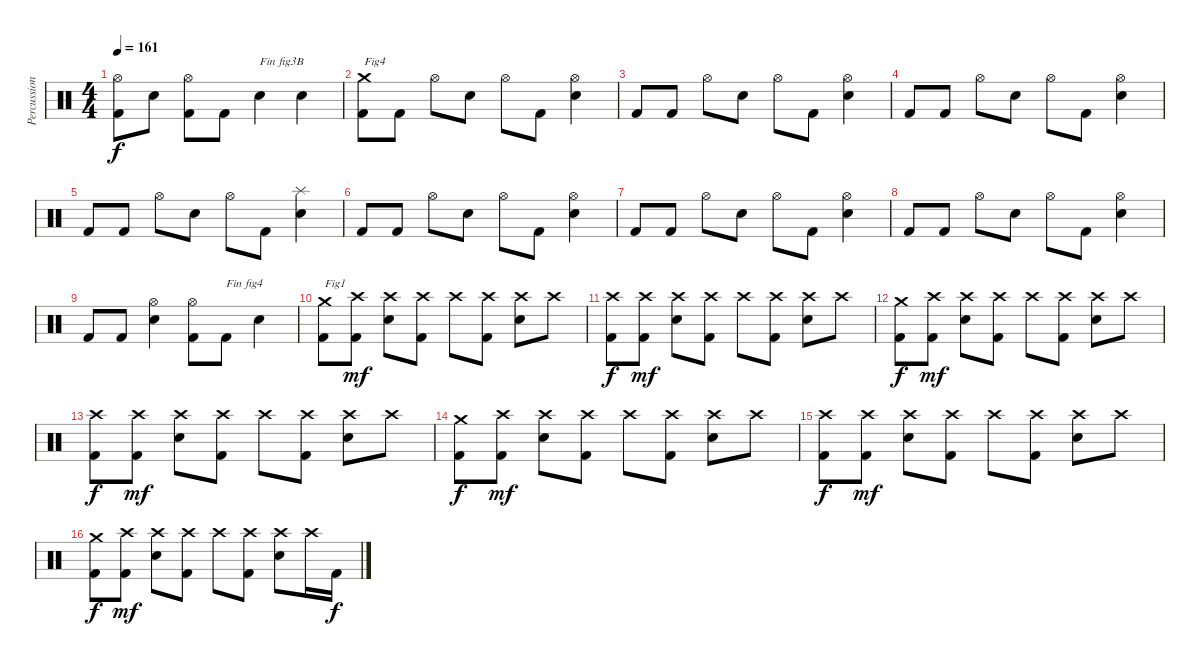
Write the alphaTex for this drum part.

\track ("Percussions" "Percussion") {instrument percussion}
\staff {score}
\articulation defaults
\ts (4 4)
\tempo 161
\clef neutral
\ks c
("Kick (hit) 2" "Hi-Hat (open)").8{dy f} "Electric Snare (hit)".8 ("Kick (hit) 2" "Hi-Hat (open)").8 "Kick (hit) 2".8 "Electric Snare (hit)".4{txt "Fin fig3B"} "Electric Snare (hit)".4 |
("Kick (hit) 2" "Crash medium (hit)").8{txt "Fig4"} "Kick (hit) 2".8 "Hi-Hat (open)".8 "Electric Snare (hit)".8 "Hi-Hat (open)".8 "Kick (hit) 2".8 ("Electric Snare (hit)" "Hi-Hat (open)").4 |
"Kick (hit) 2".8 "Kick (hit) 2".8 "Hi-Hat (open)".8 "Electric Snare (hit)".8 "Hi-Hat (open)".8 "Kick (hit) 2".8 ("Electric Snare (hit)" "Hi-Hat (open)").4 |
"Kick (hit) 2".8 "Kick (hit) 2".8 "Hi-Hat (open)".8 "Electric Snare (hit)".8 "Hi-Hat (open)".8 "Kick (hit) 2".8 ("Electric Snare (hit)" "Hi-Hat (open)").4 |
"Kick (hit) 2".8 "Kick (hit) 2".8 "Hi-Hat (open)".8 "Electric Snare (hit)".8 "Hi-Hat (open)".8 "Kick (hit) 2".8 ("Electric Snare (hit)" "Splash (hit)").4 |
"Kick (hit) 2".8 "Kick (hit) 2".8 "Hi-Hat (open)".8 "Electric Snare (hit)".8 "Hi-Hat (open)".8 "Kick (hit) 2".8 ("Electric Snare (hit)" "Hi-Hat (open)").4 |
"Kick (hit) 2".8 "Kick (hit) 2".8 "Hi-Hat (open)".8 "Electric Snare (hit)".8 "Hi-Hat (open)".8 "Kick (hit) 2".8 ("Electric Snare (hit)" "Hi-Hat (open)").4 |
"Kick (hit) 2".8 "Kick (hit) 2".8 "Hi-Hat (open)".8 "Electric Snare (hit)".8 "Hi-Hat (open)".8 "Kick (hit) 2".8 ("Electric Snare (hit)" "Hi-Hat (open)").4 |
"Kick (hit) 2".8 "Kick (hit) 2".8 ("Electric Snare (hit)" "Hi-Hat (open)").4 ("Kick (hit) 2" "Hi-Hat (open)").8 "Kick (hit) 2".8{txt "Fin fig4"} "Electric Snare (hit)".4 |
("Kick (hit) 2" "Crash medium (hit)").8{txt "Fig1"} ("Kick (hit) 2" "Crash high (hit)").8{dy mf} ("Electric Snare (hit)" "Crash high (hit)").8 ("Kick (hit) 2" "Crash high (hit)").8 "Crash high (hit)".8 ("Kick (hit) 2" "Crash high (hit)").8 ("Electric Snare (hit)" "Crash high (hit)").8 "Crash high (hit)".8 |
("Kick (hit) 2" "Crash high (hit)").8{dy f} ("Kick (hit) 2" "Crash high (hit)").8{dy mf} ("Electric Snare (hit)" "Crash high (hit)").8 ("Kick (hit) 2" "Crash high (hit)").8 "Crash high (hit)".8 ("Kick (hit) 2" "Crash high (hit)").8 ("Electric Snare (hit)" "Crash high (hit)").8 "Crash high (hit)".8 |
("Kick (hit) 2" "Crash medium (hit)").8{dy f} ("Kick (hit) 2" "Crash high (hit)").8{dy mf} ("Electric Snare (hit)" "Crash high (hit)").8 ("Kick (hit) 2" "Crash high (hit)").8 "Crash high (hit)".8 ("Kick (hit) 2" "Crash high (hit)").8 ("Electric Snare (hit)" "Crash high (hit)").8 "Crash high (hit)".8 |
("Kick (hit) 2" "Crash high (hit)").8{dy f} ("Kick (hit) 2" "Crash high (hit)").8{dy mf} ("Electric Snare (hit)" "Crash high (hit)").8 ("Kick (hit) 2" "Crash high (hit)").8 "Crash high (hit)".8 ("Kick (hit) 2" "Crash high (hit)").8 ("Electric Snare (hit)" "Crash high (hit)").8 "Crash high (hit)".8 |
("Kick (hit) 2" "Crash medium (hit)").8{dy f} ("Kick (hit) 2" "Crash high (hit)").8{dy mf} ("Electric Snare (hit)" "Crash high (hit)").8 ("Kick (hit) 2" "Crash high (hit)").8 "Crash high (hit)".8 ("Kick (hit) 2" "Crash high (hit)").8 ("Electric Snare (hit)" "Crash high (hit)").8 "Crash high (hit)".8 |
("Kick (hit) 2" "Crash high (hit)").8{dy f} ("Kick (hit) 2" "Crash high (hit)").8{dy mf} ("Electric Snare (hit)" "Crash high (hit)").8 ("Kick (hit) 2" "Crash high (hit)").8 "Crash high (hit)".8 ("Kick (hit) 2" "Crash high (hit)").8 ("Electric Snare (hit)" "Crash high (hit)").8 "Crash high (hit)".8 |
("Kick (hit) 2" "Crash medium (hit)").8{dy f} ("Kick (hit) 2" "Crash high (hit)").8{dy mf} ("Electric Snare (hit)" "Crash high (hit)").8 ("Kick (hit) 2" "Crash high (hit)").8 "Crash high (hit)".8 ("Kick (hit) 2" "Crash high (hit)").8 ("Electric Snare (hit)" "Crash high (hit)").8 "Crash high (hit)".16 "Kick (hit) 2".16{dy f}
